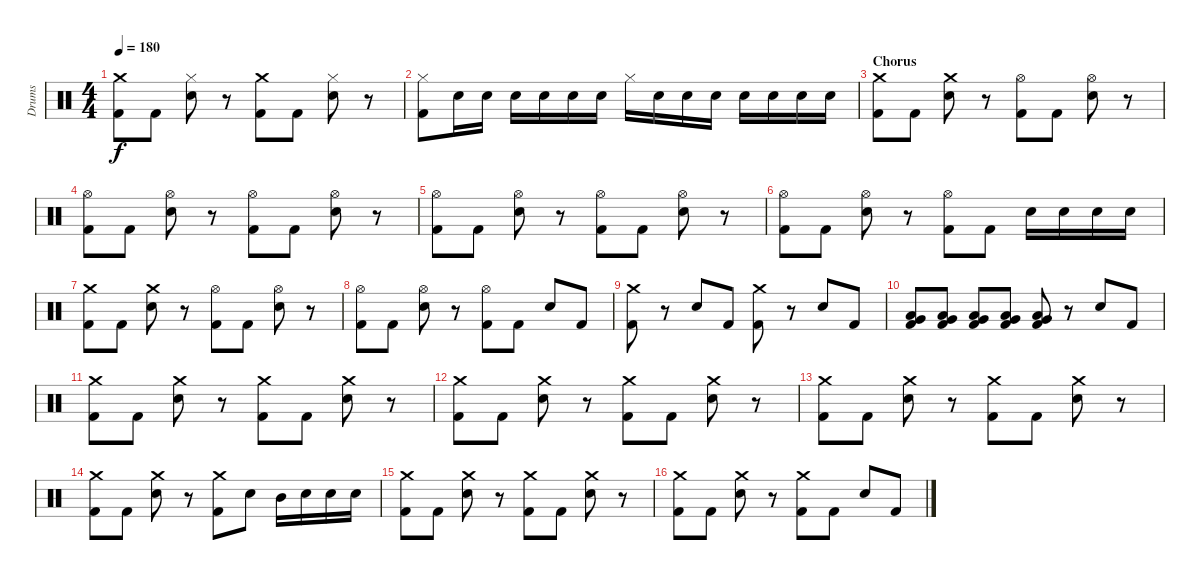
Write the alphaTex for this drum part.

\track ("Drums" "Drums") {instrument percussion}
\staff {score}
\articulation defaults
\ts (4 4)
\tempo 180
\clef neutral
\ks c
("Crash medium (hit)" "Kick (hit) 2").8{dy f} "Kick (hit) 2".8 ("Hi-Hat (closed)" "Electric Snare (hit)").8 r.8 ("Crash medium (hit)" "Kick (hit) 2").8 "Kick (hit) 2".8 ("Hi-Hat (closed)" "Electric Snare (hit)").8 r.8 |
("Hi-Hat (closed)" "Kick (hit) 2").8 "Electric Snare (hit)".16 "Electric Snare (hit)".16 "Electric Snare (hit)".16 "Electric Snare (hit)".16 "Electric Snare (hit)".16 "Electric Snare (hit)".16 "Hi-Hat (closed)".16 "Electric Snare (hit)".16 "Electric Snare (hit)".16 "Electric Snare (hit)".16 "Electric Snare (hit)".16 "Electric Snare (hit)".16 "Electric Snare (hit)".16 "Electric Snare (hit)".16 |
\section ("" "Chorus")
("Crash medium (hit)" "Kick (hit) 2").8 "Kick (hit) 2".8 ("Crash medium (hit)" "Electric Snare (hit)").8 r.8 ("Hi-Hat (open)" "Kick (hit) 2").8 "Kick (hit) 2".8 ("Hi-Hat (open)" "Electric Snare (hit)").8 r.8 |
("Hi-Hat (open)" "Kick (hit) 2").8 "Kick (hit) 2".8 ("Hi-Hat (open)" "Electric Snare (hit)").8 r.8 ("Hi-Hat (open)" "Kick (hit) 2").8 "Kick (hit) 2".8 ("Hi-Hat (open)" "Electric Snare (hit)").8 r.8 |
("Hi-Hat (open)" "Kick (hit) 2").8 "Kick (hit) 2".8 ("Hi-Hat (open)" "Electric Snare (hit)").8 r.8 ("Hi-Hat (open)" "Kick (hit) 2").8 "Kick (hit) 2".8 ("Hi-Hat (open)" "Electric Snare (hit)").8 r.8 |
("Hi-Hat (open)" "Kick (hit) 2").8 "Kick (hit) 2".8 ("Hi-Hat (open)" "Electric Snare (hit)").8 r.8 ("Hi-Hat (open)" "Kick (hit) 2").8 "Kick (hit) 2".8 "Electric Snare (hit)".16 "Electric Snare (hit)".16 "Electric Snare (hit)".16 "Electric Snare (hit)".16 |
("Crash medium (hit)" "Kick (hit) 2").8 "Kick (hit) 2".8 ("Crash medium (hit)" "Electric Snare (hit)").8 r.8 ("Hi-Hat (open)" "Kick (hit) 2").8 "Kick (hit) 2".8 ("Hi-Hat (open)" "Electric Snare (hit)").8 r.8 |
("Hi-Hat (open)" "Kick (hit) 2").8 "Kick (hit) 2".8 ("Hi-Hat (open)" "Electric Snare (hit)").8 r.8 ("Hi-Hat (open)" "Kick (hit) 2").8 "Kick (hit) 2".8 "Electric Snare (hit)".8 "Kick (hit) 2".8 |
("Crash medium (hit)" "Kick (hit) 2").8 r.8 "Electric Snare (hit)".8 "Kick (hit) 2".8 ("Crash medium (hit)" "Kick (hit) 2").8 r.8 "Electric Snare (hit)".8 "Kick (hit) 2".8 |
("Very Low Tom (hit)" "Low Tom (hit)" "Kick (hit) 2").8 ("Very Low Tom (hit)" "Low Tom (hit)" "Kick (hit) 2").8 ("Very Low Tom (hit)" "Low Tom (hit)" "Kick (hit) 2").8 ("Very Low Tom (hit)" "Low Tom (hit)" "Kick (hit) 2").8 ("Very Low Tom (hit)" "Low Tom (hit)" "Kick (hit) 2").8 r.8 "Electric Snare (hit)".8 "Kick (hit) 2".8 |
("Crash medium (hit)" "Kick (hit) 2").8 "Kick (hit) 2".8 ("Crash medium (hit)" "Electric Snare (hit)").8 r.8 ("Crash medium (hit)" "Kick (hit) 2").8 "Kick (hit) 2".8 ("Crash medium (hit)" "Electric Snare (hit)").8 r.8 |
("Crash medium (hit)" "Kick (hit) 2").8 "Kick (hit) 2".8 ("Crash medium (hit)" "Electric Snare (hit)").8 r.8 ("Crash medium (hit)" "Kick (hit) 2").8 "Kick (hit) 2".8 ("Crash medium (hit)" "Electric Snare (hit)").8 r.8 |
("Crash medium (hit)" "Kick (hit) 2").8 "Kick (hit) 2".8 ("Crash medium (hit)" "Electric Snare (hit)").8 r.8 ("Crash medium (hit)" "Kick (hit) 2").8 "Kick (hit) 2".8 ("Crash medium (hit)" "Electric Snare (hit)").8 r.8 |
("Crash medium (hit)" "Kick (hit) 2").8 "Kick (hit) 2".8 ("Crash medium (hit)" "Electric Snare (hit)").8 r.8 ("Crash medium (hit)" "Kick (hit) 2").8 "Electric Snare (hit)".8 "Mid Tom (hit)".16 "Electric Snare (hit)".16 "Electric Snare (hit)".16 "Electric Snare (hit)".16 |
("Crash medium (hit)" "Kick (hit) 2").8 "Kick (hit) 2".8 ("Crash medium (hit)" "Electric Snare (hit)").8 r.8 ("Crash medium (hit)" "Kick (hit) 2").8 "Kick (hit) 2".8 ("Crash medium (hit)" "Electric Snare (hit)").8 r.8 |
("Crash medium (hit)" "Kick (hit) 2").8 "Kick (hit) 2".8 ("Crash medium (hit)" "Electric Snare (hit)").8 r.8 ("Crash medium (hit)" "Kick (hit) 2").8 "Kick (hit) 2".8 "Electric Snare (hit)".8 "Kick (hit) 2".8
